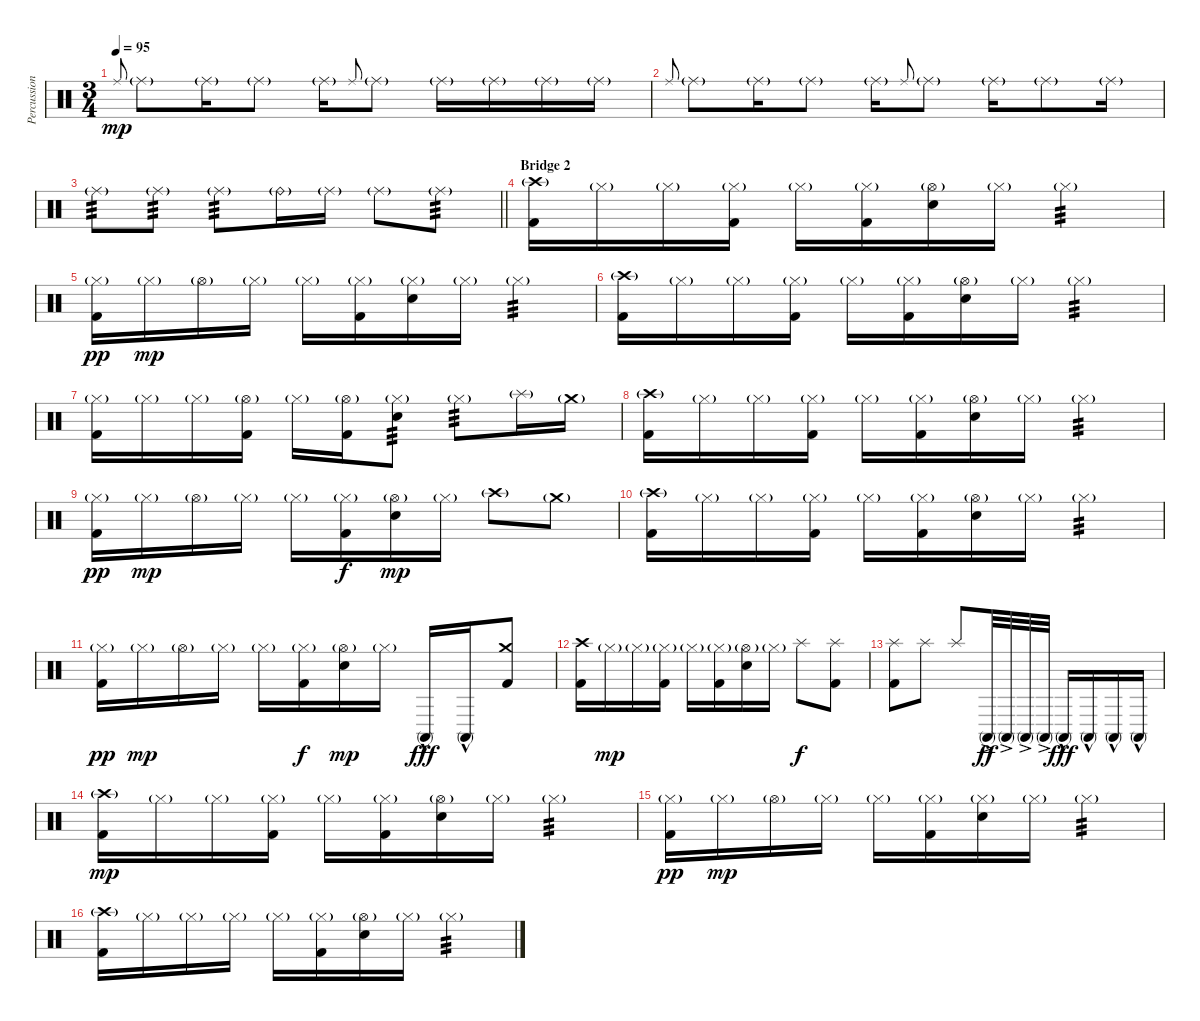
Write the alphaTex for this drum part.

\track ("Percussion Mike" "Percussion") {instrument percussion}
\staff {score}
\articulation defaults
\ts (3 4)
\tempo 95
\clef neutral
\ks c "Ride (middle)".8{gr onbeat dy mp} "Ride (middle)"{g}.8 "Ride (middle)"{g}.16 "Ride (middle)"{g}.8 "Ride (middle)"{g}.16 "Ride (middle)".8{gr onbeat} "Ride (middle)"{g}.8 "Ride (middle)"{g}.16 "Ride (middle)"{g}.16 "Ride (middle)"{g}.16 "Ride (middle)"{g}.16
|
"Ride (middle)".8{gr onbeat} "Ride (middle)"{g}.8 "Ride (middle)"{g}.16 "Ride (middle)"{g}.8 "Ride (middle)"{g}.16 "Ride (middle)".8{gr onbeat} "Ride (middle)"{g}.8 "Ride (middle)"{g}.16 "Ride (middle)"{g}.8 "Ride (middle)"{g}.16 |
\barLineRight lightlight "Ride (middle)"{g}.8{tp 3} "Ride (middle)"{g}.8{tp 3} "Ride (middle)"{g}.8{tp 3} "Ride (bell)"{g}.16 "Ride (middle)"{g}.16 "Ride (middle)"{g}.8 "Ride (middle)"{g}.8{tp 3}
|
\section ("" "Bridge 2")
("Crash high (hit)"{g} "Kick (hit) 2").16 "Hi-Hat (closed)"{g}.16 "Hi-Hat (closed)"{g}.16 ("Hi-Hat (closed)"{g} "Kick (hit) 2").16 "Hi-Hat (closed)"{g}.16 ("Hi-Hat (closed)"{g} "Kick (hit) 2").16 ("Hi-Hat (open)"{g} "Snare (hit) 2").16 "Hi-Hat (closed)"{g}.16 "Hi-Hat (closed)"{g}.4{tp 3} |
("Hi-Hat (closed)"{g} "Kick (hit) 2").16{dy pp} "Hi-Hat (closed)"{g}.16{dy mp} "Hi-Hat (open)"{g}.16 "Hi-Hat (closed)"{g}.16 "Hi-Hat (closed)"{g}.16 ("Hi-Hat (closed)"{g} "Kick (hit) 2").16 ("Hi-Hat (closed)"{g} "Snare (hit) 2").16 "Hi-Hat (closed)"{g}.16 "Hi-Hat (closed)"{g}.4{tp 3} |
("Crash high (hit)"{g} "Kick (hit) 2").16 "Hi-Hat (closed)"{g}.16 "Hi-Hat (closed)"{g}.16 ("Hi-Hat (closed)"{g} "Kick (hit) 2").16 "Hi-Hat (closed)"{g}.16 ("Hi-Hat (closed)"{g} "Kick (hit) 2").16 ("Hi-Hat (open)"{g} "Snare (hit) 2").16 "Hi-Hat (closed)"{g}.16 "Hi-Hat (closed)"{g}.4{tp 3} |
("Hi-Hat (closed)"{g} "Kick (hit) 2").16 "Hi-Hat (closed)"{g}.16 "Hi-Hat (closed)"{g}.16 ("Hi-Hat (open)"{g} "Kick (hit) 2").16 "Hi-Hat (closed)"{g}.16 ("Hi-Hat (open)"{g} "Kick (hit) 2").16 ("Hi-Hat (closed)"{g} "Snare (hit) 2").8{tp 3} "Hi-Hat (closed)"{g}.8{tp 3} "Splash (hit)"{g}.16 "Crash medium (hit)"{g}.16 |
("Crash high (hit)"{g} "Kick (hit) 2").16 "Hi-Hat (closed)"{g}.16 "Hi-Hat (closed)"{g}.16 ("Hi-Hat (closed)"{g} "Kick (hit) 2").16 "Hi-Hat (closed)"{g}.16 ("Hi-Hat (closed)"{g} "Kick (hit) 2").16 ("Hi-Hat (open)"{g} "Snare (hit) 2").16 "Hi-Hat (closed)"{g}.16 "Hi-Hat (closed)"{g}.4{tp 3} |
("Hi-Hat (closed)"{g} "Kick (hit) 2").16{dy pp} "Hi-Hat (closed)"{g}.16{dy mp} "Hi-Hat (open)"{g}.16 "Hi-Hat (closed)"{g}.16 "Hi-Hat (closed)"{g}.16 ("Hi-Hat (closed)"{g} "Kick (hit) 2").16{dy f} ("Hi-Hat (open)"{g} "Snare (hit) 2").16{dy mp} "Hi-Hat (closed)"{g}.16 "Crash high (hit)"{g}.8 "Crash medium (hit)"{g}.8 |
("Crash high (hit)"{g} "Kick (hit) 2").16 "Hi-Hat (closed)"{g}.16 "Hi-Hat (closed)"{g}.16 ("Hi-Hat (closed)"{g} "Kick (hit) 2").16 "Hi-Hat (closed)"{g}.16 ("Hi-Hat (closed)"{g} "Kick (hit) 2").16 ("Hi-Hat (open)"{g} "Snare (hit) 2").16 "Hi-Hat (closed)"{g}.16 "Hi-Hat (closed)"{g}.4{tp 3} |
("Hi-Hat (closed)"{g} "Kick (hit) 2").16{dy pp} "Hi-Hat (closed)"{g}.16{dy mp} "Hi-Hat (open)"{g}.16 "Hi-Hat (closed)"{g}.16 "Hi-Hat (closed)"{g}.16 ("Hi-Hat (closed)"{g} "Kick (hit) 2").16{dy f} ("Hi-Hat (open)"{g} "Snare (hit) 2").16{dy mp} "Hi-Hat (closed)"{g}.16 "Conga high (mute)"{hac}.16{dy fff} "Conga high (mute)"{hac}.16 ("Crash medium (hit)" "Kick (hit) 2").8 |
("Crash high (hit)" "Kick (hit) 2").16 "Hi-Hat (closed)"{g}.16{dy mp} "Hi-Hat (closed)"{g}.16 ("Hi-Hat (closed)"{g} "Kick (hit) 2").16 "Hi-Hat (closed)"{g}.16 ("Hi-Hat (closed)"{g} "Kick (hit) 2").16 ("Hi-Hat (open)"{g} "Snare (hit) 2").16 "Hi-Hat (closed)"{g}.16 "Splash (hit)".8{dy f} ("Splash (hit)" "Kick (hit) 2").8 |
("Splash (hit)" "Kick (hit) 2").8 "Splash (hit)".8 "Splash (hit)".8 "Conga high (mute)"{ac}.32{dy ff} "Conga high (mute)"{ac}.32 "Conga high (mute)"{ac}.32 "Conga high (mute)"{ac}.32 "Conga high (mute)"{hac}.16{dy fff} "Conga high (mute)"{hac}.16 "Conga high (mute)"{hac}.16 "Conga high (mute)"{hac}.16 |
("Crash high (hit)"{g} "Kick (hit) 2").16{dy mp} "Hi-Hat (closed)"{g}.16 "Hi-Hat (closed)"{g}.16 ("Hi-Hat (closed)"{g} "Kick (hit) 2").16 "Hi-Hat (closed)"{g}.16 ("Hi-Hat (closed)"{g} "Kick (hit) 2").16 ("Hi-Hat (open)"{g} "Snare (hit) 2").16 "Hi-Hat (closed)"{g}.16 "Hi-Hat (closed)"{g}.4{tp 3} |
("Hi-Hat (closed)"{g} "Kick (hit) 2").16{dy pp} "Hi-Hat (closed)"{g}.16{dy mp} "Hi-Hat (open)"{g}.16 "Hi-Hat (closed)"{g}.16 "Hi-Hat (closed)"{g}.16 ("Hi-Hat (closed)"{g} "Kick (hit) 2").16 ("Hi-Hat (closed)"{g} "Snare (hit) 2").16 "Hi-Hat (closed)"{g}.16 "Hi-Hat (closed)"{g}.4{tp 3} |
("Crash high (hit)"{g} "Kick (hit) 2").16 "Hi-Hat (closed)"{g}.16 "Hi-Hat (closed)"{g}.16 "Hi-Hat (closed)"{g}.16 "Hi-Hat (closed)"{g}.16 ("Hi-Hat (closed)"{g} "Kick (hit) 2").16 ("Hi-Hat (open)"{g} "Snare (hit) 2").16 "Hi-Hat (closed)"{g}.16 "Hi-Hat (closed)"{g}.4{tp 3}
